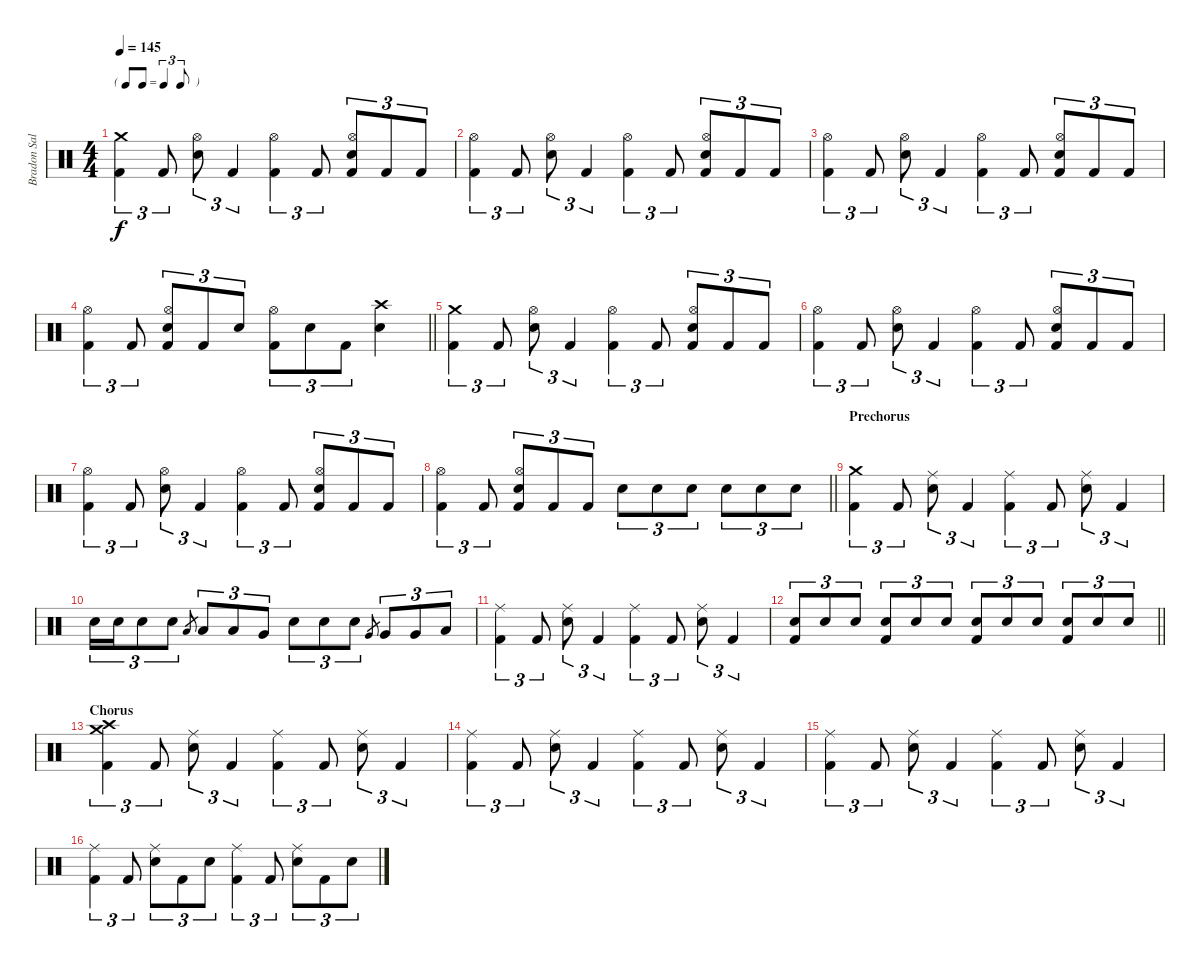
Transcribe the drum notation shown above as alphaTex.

\track ("Bradon Saller" "Bradon Sal") {instrument percussion}
\staff {score}
\articulation defaults
\ts (4 4)
\tf triplet8th
\tempo 145
\clef neutral
\ks c
("Crash medium (hit)" "Kick (hit) 2").4{tu (3 2) dy f} "Kick (hit) 2".8{tu (3 2)} ("Hi-Hat (open)" "Electric Snare (hit)").8{tu (3 2)} "Kick (hit) 2".4{tu (3 2)} ("Hi-Hat (open)" "Kick (hit) 2").4{tu (3 2)} "Kick (hit) 2".8{tu (3 2)} ("Hi-Hat (open)" "Electric Snare (hit)" "Kick (hit) 2").8{tu (3 2)} "Kick (hit) 2".8{tu (3 2)} "Kick (hit) 2".8{tu (3 2)} |
("Hi-Hat (open)" "Kick (hit) 2").4{tu (3 2)} "Kick (hit) 2".8{tu (3 2)} ("Hi-Hat (open)" "Electric Snare (hit)").8{tu (3 2)} "Kick (hit) 2".4{tu (3 2)} ("Hi-Hat (open)" "Kick (hit) 2").4{tu (3 2)} "Kick (hit) 2".8{tu (3 2)} ("Hi-Hat (open)" "Electric Snare (hit)" "Kick (hit) 2").8{tu (3 2)} "Kick (hit) 2".8{tu (3 2)} "Kick (hit) 2".8{tu (3 2)} |
("Hi-Hat (open)" "Kick (hit) 2").4{tu (3 2)} "Kick (hit) 2".8{tu (3 2)} ("Hi-Hat (open)" "Electric Snare (hit)").8{tu (3 2)} "Kick (hit) 2".4{tu (3 2)} ("Hi-Hat (open)" "Kick (hit) 2").4{tu (3 2)} "Kick (hit) 2".8{tu (3 2)} ("Hi-Hat (open)" "Electric Snare (hit)" "Kick (hit) 2").8{tu (3 2)} "Kick (hit) 2".8{tu (3 2)} "Kick (hit) 2".8{tu (3 2)} |
\barLineRight lightlight
("Hi-Hat (open)" "Kick (hit) 2").4{tu (3 2)} "Kick (hit) 2".8{tu (3 2)} ("Hi-Hat (open)" "Electric Snare (hit)" "Kick (hit) 2").8{tu (3 2)} "Kick (hit) 2".8{tu (3 2)} "Electric Snare (hit)".8{tu (3 2)} ("Hi-Hat (open)" "Kick (hit) 2").8{tu (3 2)} "Electric Snare (hit)".8{tu (3 2)} "Kick (hit) 2".8{tu (3 2)} ("Crash high (hit)" "Electric Snare (hit)").4 |
("Crash medium (hit)" "Kick (hit) 2").4{tu (3 2)} "Kick (hit) 2".8{tu (3 2)} ("Hi-Hat (open)" "Electric Snare (hit)").8{tu (3 2)} "Kick (hit) 2".4{tu (3 2)} ("Hi-Hat (open)" "Kick (hit) 2").4{tu (3 2)} "Kick (hit) 2".8{tu (3 2)} ("Hi-Hat (open)" "Electric Snare (hit)" "Kick (hit) 2").8{tu (3 2)} "Kick (hit) 2".8{tu (3 2)} "Kick (hit) 2".8{tu (3 2)} |
("Hi-Hat (open)" "Kick (hit) 2").4{tu (3 2)} "Kick (hit) 2".8{tu (3 2)} ("Hi-Hat (open)" "Electric Snare (hit)").8{tu (3 2)} "Kick (hit) 2".4{tu (3 2)} ("Hi-Hat (open)" "Kick (hit) 2").4{tu (3 2)} "Kick (hit) 2".8{tu (3 2)} ("Hi-Hat (open)" "Electric Snare (hit)" "Kick (hit) 2").8{tu (3 2)} "Kick (hit) 2".8{tu (3 2)} "Kick (hit) 2".8{tu (3 2)} |
("Hi-Hat (open)" "Kick (hit) 2").4{tu (3 2)} "Kick (hit) 2".8{tu (3 2)} ("Hi-Hat (open)" "Electric Snare (hit)").8{tu (3 2)} "Kick (hit) 2".4{tu (3 2)} ("Hi-Hat (open)" "Kick (hit) 2").4{tu (3 2)} "Kick (hit) 2".8{tu (3 2)} ("Hi-Hat (open)" "Electric Snare (hit)" "Kick (hit) 2").8{tu (3 2)} "Kick (hit) 2".8{tu (3 2)} "Kick (hit) 2".8{tu (3 2)} |
\barLineRight lightlight
("Hi-Hat (open)" "Kick (hit) 2").4{tu (3 2)} "Kick (hit) 2".8{tu (3 2)} ("Hi-Hat (open)" "Electric Snare (hit)" "Kick (hit) 2").8{tu (3 2)} "Kick (hit) 2".8{tu (3 2)} "Kick (hit) 2".8{tu (3 2)} "Electric Snare (hit)".8{tu (3 2)} "Electric Snare (hit)".8{tu (3 2)} "Electric Snare (hit)".8{tu (3 2)} "Electric Snare (hit)".8{tu (3 2)} "Electric Snare (hit)".8{tu (3 2)} "Electric Snare (hit)".8{tu (3 2)} |
\section ("" "Prechorus")
("Crash medium (hit)" "Kick (hit) 2").4{tu (3 2)} "Kick (hit) 2".8{tu (3 2)} ("Ride (middle)" "Electric Snare (hit)").8{tu (3 2)} "Kick (hit) 2".4{tu (3 2)} ("Ride (middle)" "Kick (hit) 2").4{tu (3 2)} "Kick (hit) 2".8{tu (3 2)} ("Ride (middle)" "Electric Snare (hit)").8{tu (3 2)} "Kick (hit) 2".4{tu (3 2)} |
"Electric Snare (hit)".16{tu (3 2)} "Electric Snare (hit)".16{tu (3 2)} "Electric Snare (hit)".8{tu (3 2)} "Electric Snare (hit)".8{tu (3 2)} "Low Tom (hit)".8{gr} "Low Tom (hit)".8{tu (3 2)} "Low Tom (hit)".8{tu (3 2)} "Very Low Tom (hit)".8{tu (3 2)} "Electric Snare (hit)".8{tu (3 2)} "Electric Snare (hit)".8{tu (3 2)} "Electric Snare (hit)".8{tu (3 2)} "Very Low Tom (hit)".8{gr} "Very Low Tom (hit)".8{tu (3 2)} "Very Low Tom (hit)".8{tu (3 2)} "Low Floor Tom (hit)".8{tu (3 2)} |
("Ride (middle)" "Kick (hit) 2").4{tu (3 2)} "Kick (hit) 2".8{tu (3 2)} ("Ride (middle)" "Electric Snare (hit)").8{tu (3 2)} "Kick (hit) 2".4{tu (3 2)} ("Ride (middle)" "Kick (hit) 2").4{tu (3 2)} "Kick (hit) 2".8{tu (3 2)} ("Ride (middle)" "Electric Snare (hit)").8{tu (3 2)} "Kick (hit) 2".4{tu (3 2)} |
\barLineRight lightlight
("Electric Snare (hit)" "Kick (hit) 2").8{tu (3 2)} "Electric Snare (hit)".8{tu (3 2)} "Electric Snare (hit)".8{tu (3 2)} ("Electric Snare (hit)" "Kick (hit) 2").8{tu (3 2)} "Electric Snare (hit)".8{tu (3 2)} "Electric Snare (hit)".8{tu (3 2)} ("Electric Snare (hit)" "Kick (hit) 2").8{tu (3 2)} "Electric Snare (hit)".8{tu (3 2)} "Electric Snare (hit)".8{tu (3 2)} ("Electric Snare (hit)" "Kick (hit) 2").8{tu (3 2)} "Electric Snare (hit)".8{tu (3 2)} "Electric Snare (hit)".8{tu (3 2)} |
\section ("" "Chorus")
("Crash medium (hit)" "Crash high (hit)" "Kick (hit) 2").4{tu (3 2)} "Kick (hit) 2".8{tu (3 2)} ("Ride (middle)" "Electric Snare (hit)").8{tu (3 2)} "Kick (hit) 2".4{tu (3 2)} ("Ride (middle)" "Kick (hit) 2").4{tu (3 2)} "Kick (hit) 2".8{tu (3 2)} ("Ride (middle)" "Electric Snare (hit)").8{tu (3 2)} "Kick (hit) 2".4{tu (3 2)} |
("Ride (middle)" "Kick (hit) 2").4{tu (3 2)} "Kick (hit) 2".8{tu (3 2)} ("Ride (middle)" "Electric Snare (hit)").8{tu (3 2)} "Kick (hit) 2".4{tu (3 2)} ("Ride (middle)" "Kick (hit) 2").4{tu (3 2)} "Kick (hit) 2".8{tu (3 2)} ("Ride (middle)" "Electric Snare (hit)").8{tu (3 2)} "Kick (hit) 2".4{tu (3 2)} |
("Ride (middle)" "Kick (hit) 2").4{tu (3 2)} "Kick (hit) 2".8{tu (3 2)} ("Ride (middle)" "Electric Snare (hit)").8{tu (3 2)} "Kick (hit) 2".4{tu (3 2)} ("Ride (middle)" "Kick (hit) 2").4{tu (3 2)} "Kick (hit) 2".8{tu (3 2)} ("Ride (middle)" "Electric Snare (hit)").8{tu (3 2)} "Kick (hit) 2".4{tu (3 2)} |
("Ride (middle)" "Kick (hit) 2").4{tu (3 2)} "Kick (hit) 2".8{tu (3 2)} ("Ride (middle)" "Electric Snare (hit)").8{tu (3 2)} "Kick (hit) 2".8{tu (3 2)} "Electric Snare (hit)".8{tu (3 2)} ("Ride (middle)" "Kick (hit) 2").4{tu (3 2)} "Kick (hit) 2".8{tu (3 2)} ("Ride (middle)" "Electric Snare (hit)").8{tu (3 2)} "Kick (hit) 2".8{tu (3 2)} "Electric Snare (hit)".8{tu (3 2)}
